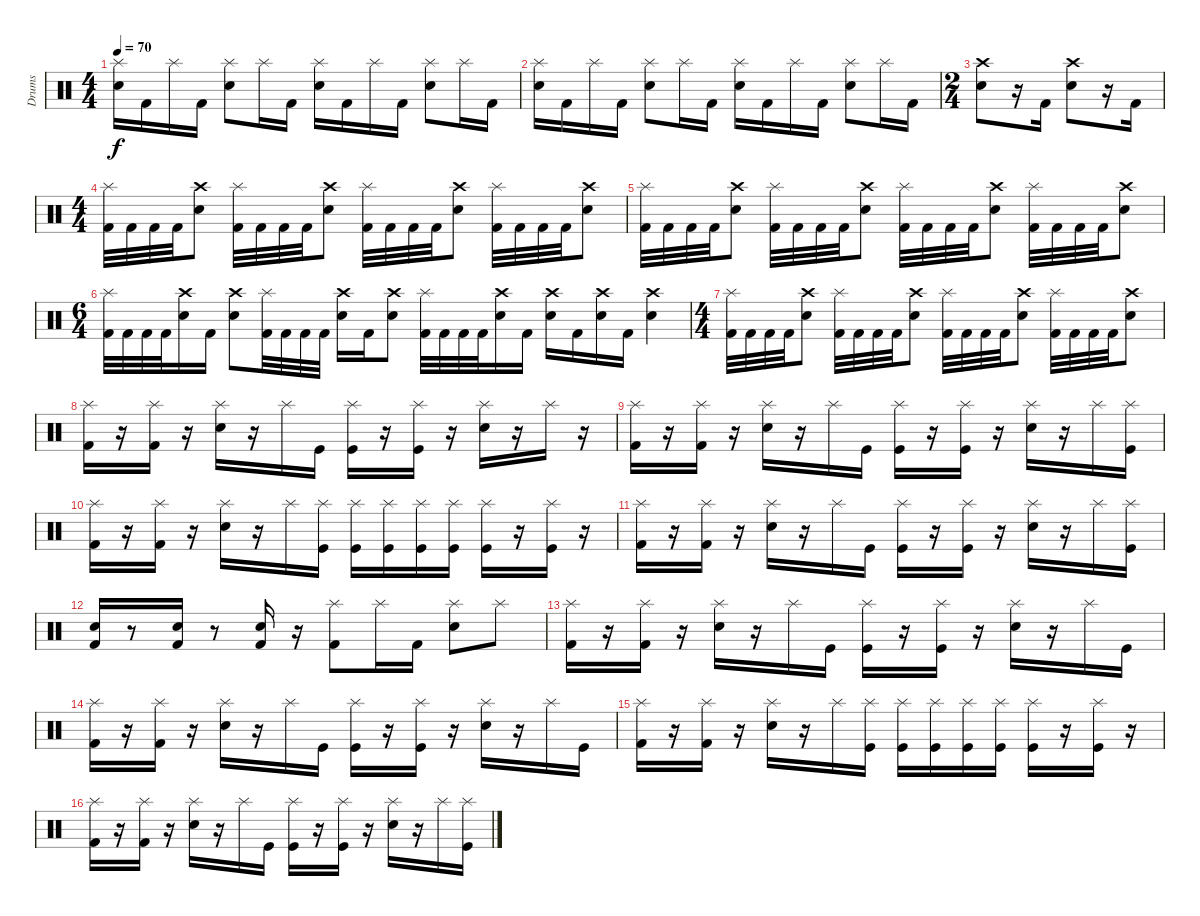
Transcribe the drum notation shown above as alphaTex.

\track ("Drums" "Drums") {instrument percussion}
\staff {score}
\articulation defaults
\ts (4 4)
\tempo 70
\clef neutral
\ks c
("Splash (hit)" "Snare (hit) 2").16{dy f} "Kick (hit) 2".16 "Splash (hit)".16 "Kick (hit) 2".16 ("Splash (hit)" "Snare (hit) 2").8 "Splash (hit)".16 "Kick (hit) 2".16 ("Splash (hit)" "Snare (hit) 2").16 "Kick (hit) 2".16 "Splash (hit)".16 "Kick (hit) 2".16 ("Splash (hit)" "Snare (hit) 2").8 "Splash (hit)".16 "Kick (hit) 2".16 |
("Splash (hit)" "Snare (hit) 2").16 "Kick (hit) 2".16 "Splash (hit)".16 "Kick (hit) 2".16 ("Splash (hit)" "Snare (hit) 2").8 "Splash (hit)".16 "Kick (hit) 2".16 ("Splash (hit)" "Snare (hit) 2").16 "Kick (hit) 2".16 "Splash (hit)".16 "Kick (hit) 2".16 ("Splash (hit)" "Snare (hit) 2").8 "Splash (hit)".16 "Kick (hit) 2".16 |
\ts (2 4)
("Crash high (hit)" "Snare (hit) 2").8 r.16 "Kick (hit) 2".16 ("Crash high (hit)" "Snare (hit) 2").8 r.16 "Kick (hit) 2".16 |
\ts (4 4)
("Splash (hit)" "Kick (hit) 2").32 "Kick (hit) 2".32 "Kick (hit) 2".32 "Kick (hit) 2".32 ("Crash high (hit)" "Snare (hit) 2").8 ("Splash (hit)" "Kick (hit) 2").32 "Kick (hit) 2".32 "Kick (hit) 2".32 "Kick (hit) 2".32 ("Crash high (hit)" "Snare (hit) 2").8 ("Splash (hit)" "Kick (hit) 2").32 "Kick (hit) 2".32 "Kick (hit) 2".32 "Kick (hit) 2".32 ("Crash high (hit)" "Snare (hit) 2").8 ("Splash (hit)" "Kick (hit) 2").32 "Kick (hit) 2".32 "Kick (hit) 2".32 "Kick (hit) 2".32 ("Crash high (hit)" "Snare (hit) 2").8 |
("Splash (hit)" "Kick (hit) 2").32 "Kick (hit) 2".32 "Kick (hit) 2".32 "Kick (hit) 2".32 ("Crash high (hit)" "Snare (hit) 2").8 ("Splash (hit)" "Kick (hit) 2").32 "Kick (hit) 2".32 "Kick (hit) 2".32 "Kick (hit) 2".32 ("Crash high (hit)" "Snare (hit) 2").8 ("Splash (hit)" "Kick (hit) 2").32 "Kick (hit) 2".32 "Kick (hit) 2".32 "Kick (hit) 2".32 ("Crash high (hit)" "Snare (hit) 2").8 ("Splash (hit)" "Kick (hit) 2").32 "Kick (hit) 2".32 "Kick (hit) 2".32 "Kick (hit) 2".32 ("Crash high (hit)" "Snare (hit) 2").8 |
\ts (6 4)
("Splash (hit)" "Kick (hit) 2").32 "Kick (hit) 2".32 "Kick (hit) 2".32 "Kick (hit) 2".32 ("Crash high (hit)" "Snare (hit) 2").16 "Kick (hit) 2".16 ("Crash high (hit)" "Snare (hit) 2").8 ("Splash (hit)" "Kick (hit) 2").32 "Kick (hit) 2".32 "Kick (hit) 2".32 "Kick (hit) 2".32 ("Crash high (hit)" "Snare (hit) 2").16 "Kick (hit) 2".16 ("Crash high (hit)" "Snare (hit) 2").8 ("Splash (hit)" "Kick (hit) 2").32 "Kick (hit) 2".32 "Kick (hit) 2".32 "Kick (hit) 2".32 ("Crash high (hit)" "Snare (hit) 2").16 "Kick (hit) 2".16 ("Crash high (hit)" "Snare (hit) 2").16 "Kick (hit) 2".16 ("Crash high (hit)" "Snare (hit) 2").16 "Kick (hit) 2".16 ("Crash high (hit)" "Snare (hit) 2").4 |
\ts (4 4)
("Splash (hit)" "Kick (hit) 2").32 "Kick (hit) 2".32 "Kick (hit) 2".32 "Kick (hit) 2".32 ("Crash high (hit)" "Snare (hit) 2").8 ("Splash (hit)" "Kick (hit) 2").32 "Kick (hit) 2".32 "Kick (hit) 2".32 "Kick (hit) 2".32 ("Crash high (hit)" "Snare (hit) 2").8 ("Splash (hit)" "Kick (hit) 2").32 "Kick (hit) 2".32 "Kick (hit) 2".32 "Kick (hit) 2".32 ("Crash high (hit)" "Snare (hit) 2").8 ("Splash (hit)" "Kick (hit) 2").32 "Kick (hit) 2".32 "Kick (hit) 2".32 "Kick (hit) 2".32 ("Crash high (hit)" "Snare (hit) 2").8 |
("Splash (hit)" "Kick (hit) 2").16 r.16 ("Splash (hit)" "Kick (hit) 2").16 r.16 ("Splash (hit)" "Snare (hit) 2").16 r.16 "Splash (hit)".16 "Kick (hit)".16 ("Splash (hit)" "Kick (hit)").16 r.16 ("Splash (hit)" "Kick (hit)").16 r.16 ("Splash (hit)" "Snare (hit) 2").16 r.16 "Splash (hit)".16 r.16 |
("Splash (hit)" "Kick (hit) 2").16 r.16 ("Splash (hit)" "Kick (hit) 2").16 r.16 ("Splash (hit)" "Snare (hit) 2").16 r.16 "Splash (hit)".16 "Kick (hit)".16 ("Splash (hit)" "Kick (hit)").16 r.16 ("Splash (hit)" "Kick (hit)").16 r.16 ("Splash (hit)" "Snare (hit) 2").16 r.16 "Splash (hit)".16 ("Splash (hit)" "Kick (hit)").16 |
("Splash (hit)" "Kick (hit) 2").16 r.16 ("Splash (hit)" "Kick (hit) 2").16 r.16 ("Splash (hit)" "Snare (hit) 2").16 r.16 "Splash (hit)".16 ("Splash (hit)" "Kick (hit)").16 ("Splash (hit)" "Kick (hit)").16 ("Splash (hit)" "Kick (hit)").16 ("Splash (hit)" "Kick (hit)").16 ("Splash (hit)" "Kick (hit)").16 ("Splash (hit)" "Kick (hit)").16 r.16 ("Splash (hit)" "Kick (hit)").16 r.16 |
("Splash (hit)" "Kick (hit) 2").16 r.16 ("Splash (hit)" "Kick (hit) 2").16 r.16 ("Splash (hit)" "Snare (hit) 2").16 r.16 "Splash (hit)".16 "Kick (hit)".16 ("Splash (hit)" "Kick (hit)").16 r.16 ("Splash (hit)" "Kick (hit)").16 r.16 ("Splash (hit)" "Snare (hit) 2").16 r.16 "Splash (hit)".16 ("Splash (hit)" "Kick (hit)").16 |
("Kick (hit) 2" "Snare (hit) 2").16 r.8 ("Kick (hit) 2" "Snare (hit) 2").16 r.8 ("Kick (hit) 2" "Snare (hit) 2").16 r.16 ("Splash (hit)" "Kick (hit) 2").8 "Splash (hit)".16 "Kick (hit) 2".16 ("Splash (hit)" "Snare (hit) 2").8 "Splash (hit)".8 |
("Splash (hit)" "Kick (hit) 2").16 r.16 ("Splash (hit)" "Kick (hit) 2").16 r.16 ("Splash (hit)" "Snare (hit) 2").16 r.16 "Splash (hit)".16 "Kick (hit)".16 ("Splash (hit)" "Kick (hit)").16 r.16 ("Splash (hit)" "Kick (hit)").16 r.16 ("Splash (hit)" "Snare (hit) 2").16 r.16 "Splash (hit)".16 "Kick (hit)".16 |
("Splash (hit)" "Kick (hit) 2").16 r.16 ("Splash (hit)" "Kick (hit) 2").16 r.16 ("Splash (hit)" "Snare (hit) 2").16 r.16 "Splash (hit)".16 "Kick (hit)".16 ("Splash (hit)" "Kick (hit)").16 r.16 ("Splash (hit)" "Kick (hit)").16 r.16 ("Splash (hit)" "Snare (hit) 2").16 r.16 "Splash (hit)".16 "Kick (hit)".16 |
("Splash (hit)" "Kick (hit) 2").16 r.16 ("Splash (hit)" "Kick (hit) 2").16 r.16 ("Splash (hit)" "Snare (hit) 2").16 r.16 "Splash (hit)".16 ("Splash (hit)" "Kick (hit)").16 ("Splash (hit)" "Kick (hit)").16 ("Splash (hit)" "Kick (hit)").16 ("Splash (hit)" "Kick (hit)").16 ("Splash (hit)" "Kick (hit)").16 ("Splash (hit)" "Kick (hit)").16 r.16 ("Splash (hit)" "Kick (hit)").16 r.16 |
("Splash (hit)" "Kick (hit) 2").16 r.16 ("Splash (hit)" "Kick (hit) 2").16 r.16 ("Splash (hit)" "Snare (hit) 2").16 r.16 "Splash (hit)".16 "Kick (hit)".16 ("Splash (hit)" "Kick (hit)").16 r.16 ("Splash (hit)" "Kick (hit)").16 r.16 ("Splash (hit)" "Snare (hit) 2").16 r.16 "Splash (hit)".16 ("Splash (hit)" "Kick (hit)").16
